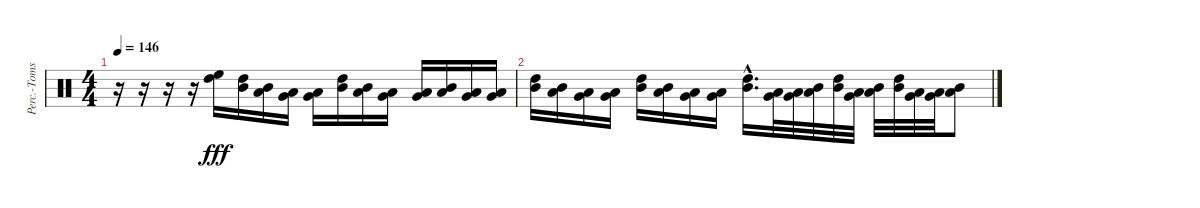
\track ("Perc.-Toms 1" "Perc.-Toms") {instrument percussion}
\staff {score}
\articulation defaults
\ts (4 4)
\tempo 146
\clef neutral
\ks c
r.16{dy fff} r.16 r.16 r.16 ("High Floor Tom (hit)" "High Tom (hit)").16 ("High Tom (hit)" "Mid Tom (hit)").16 ("Mid Tom (hit)" "Low Tom (hit)").16 ("Low Tom (hit)" "Very Low Tom (hit)").16 ("Very Low Tom (hit)" "Low Floor Tom (hit)").16 ("High Tom (hit)" "Mid Tom (hit)").16 ("Mid Tom (hit)" "Low Tom (hit)").16 ("Low Tom (hit)" "Very Low Tom (hit)").16 ("Very Low Tom (hit)" "Low Floor Tom (hit)").16 ("Mid Tom (hit)" "Low Tom (hit)").16 ("Low Tom (hit)" "Very Low Tom (hit)").16 ("Very Low Tom (hit)" "Low Floor Tom (hit)").16 |
("High Tom (hit)" "Mid Tom (hit)").16 ("Mid Tom (hit)" "Low Tom (hit)").16 ("Low Tom (hit)" "Very Low Tom (hit)").16 ("Very Low Tom (hit)" "Low Floor Tom (hit)").16 ("High Tom (hit)" "Mid Tom (hit)").16 ("Mid Tom (hit)" "Low Tom (hit)").16 ("Low Tom (hit)" "Very Low Tom (hit)").16 ("Very Low Tom (hit)" "Low Floor Tom (hit)").16 ("High Tom (hit)"{hac} "Mid Tom (hit)"{hac}).16{d} ("Very Low Tom (hit)" "Low Floor Tom (hit)").32 ("Low Tom (hit)" "Very Low Tom (hit)").32 ("Mid Tom (hit)" "Low Tom (hit)").32 ("High Tom (hit)" "Mid Tom (hit)").32 ("Low Tom (hit)" "Very Low Tom (hit)").32 ("Mid Tom (hit)" "Low Tom (hit)").32 ("High Tom (hit)" "Mid Tom (hit)").32 ("Very Low Tom (hit)" "Low Floor Tom (hit)").32 ("Low Tom (hit)" "Very Low Tom (hit)").32 ("Mid Tom (hit)" "Low Tom (hit)").8
